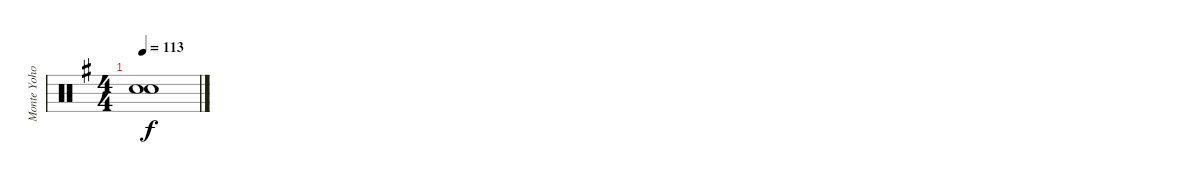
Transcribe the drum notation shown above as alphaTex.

\track ("Monte Yoho Drums" "Monte Yoho") {instrument percussion}
\staff {score}
\articulation defaults
\ts (4 4)
\tempo 113
\clef neutral
\ks eminor
("Snare (hit)"{t} "Snare (hit)"{t}).1{dy f}
